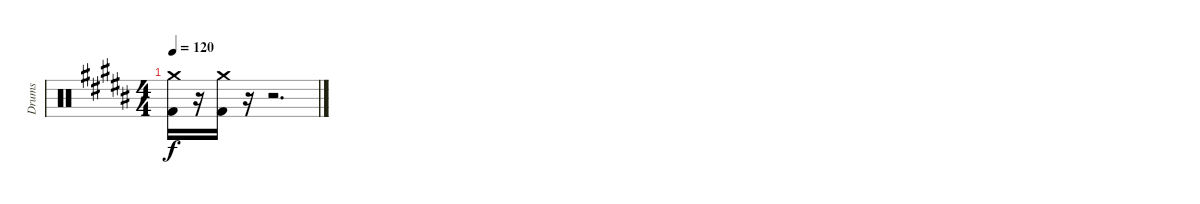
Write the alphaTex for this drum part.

\track ("Drums" "Drums") {instrument percussion}
\staff {score}
\articulation defaults
\ts (4 4)
\tempo 120
\clef neutral
\ks b
("Crash medium (hit)" "Kick (hit) 2").16{dy f} r.16 ("Crash medium (hit)" "Kick (hit) 2").16 r.16 r.2{d}
